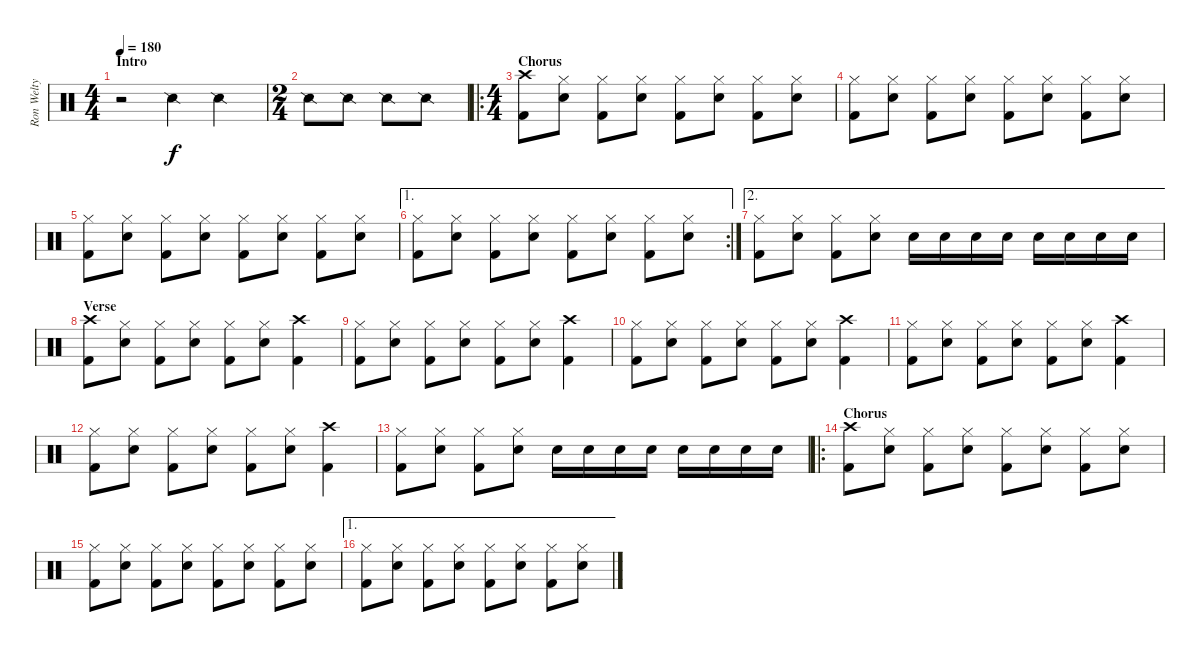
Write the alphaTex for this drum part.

\track ("Ron Welty" "Ron Welty") {instrument percussion}
\staff {score}
\articulation defaults
\ts (4 4)
\section ("" "Intro")
\tempo 180
\clef neutral
\ks c
r.2{dy f} "Snare (side stick) 2".4 "Snare (side stick) 2".4 |
\ts (2 4)
"Snare (side stick) 2".8 "Snare (side stick) 2".8 "Snare (side stick) 2".8 "Snare (side stick) 2".8 |
\ro
\ts (4 4)
\section ("" "Chorus")
("Crash high (hit)" "Kick (hit) 2").8 ("Hi-Hat (closed)" "Electric Snare (hit)").8 ("Hi-Hat (closed)" "Kick (hit) 2").8 ("Hi-Hat (closed)" "Electric Snare (hit)").8 ("Hi-Hat (closed)" "Kick (hit) 2").8 ("Hi-Hat (closed)" "Electric Snare (hit)").8 ("Hi-Hat (closed)" "Kick (hit) 2").8 ("Hi-Hat (closed)" "Electric Snare (hit)").8 |
("Hi-Hat (closed)" "Kick (hit) 2").8 ("Hi-Hat (closed)" "Electric Snare (hit)").8 ("Hi-Hat (closed)" "Kick (hit) 2").8 ("Hi-Hat (closed)" "Electric Snare (hit)").8 ("Hi-Hat (closed)" "Kick (hit) 2").8 ("Hi-Hat (closed)" "Electric Snare (hit)").8 ("Hi-Hat (closed)" "Kick (hit) 2").8 ("Hi-Hat (closed)" "Electric Snare (hit)").8 |
("Hi-Hat (closed)" "Kick (hit) 2").8 ("Hi-Hat (closed)" "Electric Snare (hit)").8 ("Hi-Hat (closed)" "Kick (hit) 2").8 ("Hi-Hat (closed)" "Electric Snare (hit)").8 ("Hi-Hat (closed)" "Kick (hit) 2").8 ("Hi-Hat (closed)" "Electric Snare (hit)").8 ("Hi-Hat (closed)" "Kick (hit) 2").8 ("Hi-Hat (closed)" "Electric Snare (hit)").8 |
\ae 1
\rc 2
("Hi-Hat (closed)" "Kick (hit) 2").8 ("Hi-Hat (closed)" "Electric Snare (hit)").8 ("Hi-Hat (closed)" "Kick (hit) 2").8 ("Hi-Hat (closed)" "Electric Snare (hit)").8 ("Hi-Hat (closed)" "Kick (hit) 2").8 ("Hi-Hat (closed)" "Electric Snare (hit)").8 ("Hi-Hat (closed)" "Kick (hit) 2").8 ("Hi-Hat (closed)" "Electric Snare (hit)").8 |
\ae 2
("Hi-Hat (closed)" "Kick (hit) 2").8 ("Hi-Hat (closed)" "Electric Snare (hit)").8 ("Hi-Hat (closed)" "Kick (hit) 2").8 ("Hi-Hat (closed)" "Electric Snare (hit)").8 "Electric Snare (hit)".16 "Electric Snare (hit)".16 "Electric Snare (hit)".16 "Electric Snare (hit)".16 "Electric Snare (hit)".16 "Electric Snare (hit)".16 "Electric Snare (hit)".16 "Electric Snare (hit)".16 |
\section ("" "Verse")
("Crash high (hit)" "Kick (hit) 2").8 ("Hi-Hat (closed)" "Electric Snare (hit)").8 ("Hi-Hat (closed)" "Kick (hit) 2").8 ("Hi-Hat (closed)" "Electric Snare (hit)").8 ("Hi-Hat (closed)" "Kick (hit) 2").8 ("Hi-Hat (closed)" "Electric Snare (hit)").8 ("Crash high (hit)" "Kick (hit) 2").4 |
("Hi-Hat (closed)" "Kick (hit) 2").8 ("Hi-Hat (closed)" "Electric Snare (hit)").8 ("Hi-Hat (closed)" "Kick (hit) 2").8 ("Hi-Hat (closed)" "Electric Snare (hit)").8 ("Hi-Hat (closed)" "Kick (hit) 2").8 ("Hi-Hat (closed)" "Electric Snare (hit)").8 ("Crash high (hit)" "Kick (hit) 2").4 |
("Hi-Hat (closed)" "Kick (hit) 2").8 ("Hi-Hat (closed)" "Electric Snare (hit)").8 ("Hi-Hat (closed)" "Kick (hit) 2").8 ("Hi-Hat (closed)" "Electric Snare (hit)").8 ("Hi-Hat (closed)" "Kick (hit) 2").8 ("Hi-Hat (closed)" "Electric Snare (hit)").8 ("Crash high (hit)" "Kick (hit) 2").4 |
("Hi-Hat (closed)" "Kick (hit) 2").8 ("Hi-Hat (closed)" "Electric Snare (hit)").8 ("Hi-Hat (closed)" "Kick (hit) 2").8 ("Hi-Hat (closed)" "Electric Snare (hit)").8 ("Hi-Hat (closed)" "Kick (hit) 2").8 ("Hi-Hat (closed)" "Electric Snare (hit)").8 ("Crash high (hit)" "Kick (hit) 2").4 |
("Hi-Hat (closed)" "Kick (hit) 2").8 ("Hi-Hat (closed)" "Electric Snare (hit)").8 ("Hi-Hat (closed)" "Kick (hit) 2").8 ("Hi-Hat (closed)" "Electric Snare (hit)").8 ("Hi-Hat (closed)" "Kick (hit) 2").8 ("Hi-Hat (closed)" "Electric Snare (hit)").8 ("Crash high (hit)" "Kick (hit) 2").4 |
("Hi-Hat (closed)" "Kick (hit) 2").8 ("Hi-Hat (closed)" "Electric Snare (hit)").8 ("Hi-Hat (closed)" "Kick (hit) 2").8 ("Hi-Hat (closed)" "Electric Snare (hit)").8 "Electric Snare (hit)".16 "Electric Snare (hit)".16 "Electric Snare (hit)".16 "Electric Snare (hit)".16 "Electric Snare (hit)".16 "Electric Snare (hit)".16 "Electric Snare (hit)".16 "Electric Snare (hit)".16 |
\ro
\section ("" "Chorus")
("Crash high (hit)" "Kick (hit) 2").8 ("Hi-Hat (closed)" "Electric Snare (hit)").8 ("Hi-Hat (closed)" "Kick (hit) 2").8 ("Hi-Hat (closed)" "Electric Snare (hit)").8 ("Hi-Hat (closed)" "Kick (hit) 2").8 ("Hi-Hat (closed)" "Electric Snare (hit)").8 ("Hi-Hat (closed)" "Kick (hit) 2").8 ("Hi-Hat (closed)" "Electric Snare (hit)").8 |
("Hi-Hat (closed)" "Kick (hit) 2").8 ("Hi-Hat (closed)" "Electric Snare (hit)").8 ("Hi-Hat (closed)" "Kick (hit) 2").8 ("Hi-Hat (closed)" "Electric Snare (hit)").8 ("Hi-Hat (closed)" "Kick (hit) 2").8 ("Hi-Hat (closed)" "Electric Snare (hit)").8 ("Hi-Hat (closed)" "Kick (hit) 2").8 ("Hi-Hat (closed)" "Electric Snare (hit)").8 |
\ae 1
("Hi-Hat (closed)" "Kick (hit) 2").8 ("Hi-Hat (closed)" "Electric Snare (hit)").8 ("Hi-Hat (closed)" "Kick (hit) 2").8 ("Hi-Hat (closed)" "Electric Snare (hit)").8 ("Hi-Hat (closed)" "Kick (hit) 2").8 ("Hi-Hat (closed)" "Electric Snare (hit)").8 ("Hi-Hat (closed)" "Kick (hit) 2").8 ("Hi-Hat (closed)" "Electric Snare (hit)").8
